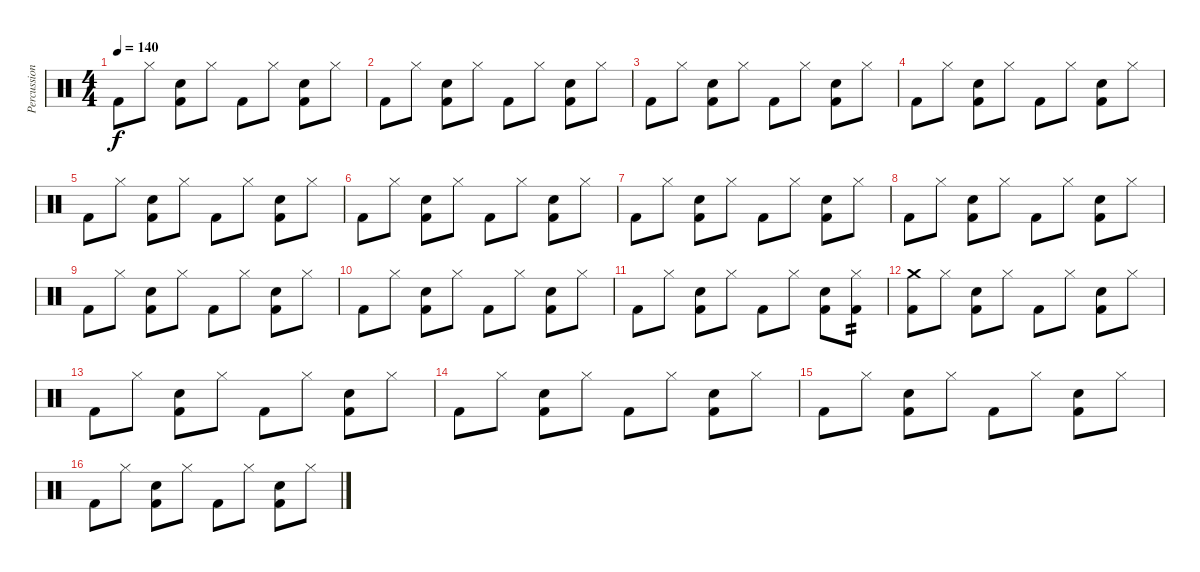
\track ("Percussion" "Percussion") {instrument percussion}
\staff {score}
\articulation defaults
\ts (4 4)
\tempo 140
\clef neutral
\ks c "Kick (hit) 2".8{dy f} "Hi-Hat (closed)".8
("Electric Snare (hit)" "Kick (hit) 2").8 "Hi-Hat (closed)".8 "Kick (hit) 2".8 "Hi-Hat (closed)".8 ("Electric Snare (hit)" "Kick (hit) 2").8 "Hi-Hat (closed)".8 |
"Kick (hit) 2".8 "Hi-Hat (closed)".8 ("Electric Snare (hit)" "Kick (hit) 2").8 "Hi-Hat (closed)".8 "Kick (hit) 2".8 "Hi-Hat (closed)".8 ("Electric Snare (hit)" "Kick (hit) 2").8 "Hi-Hat (closed)".8 |
"Kick (hit) 2".8 "Hi-Hat (closed)".8 ("Electric Snare (hit)" "Kick (hit) 2").8 "Hi-Hat (closed)".8 "Kick (hit) 2".8 "Hi-Hat (closed)".8 ("Electric Snare (hit)" "Kick (hit) 2").8 "Hi-Hat (closed)".8 |
"Kick (hit) 2".8 "Hi-Hat (closed)".8 ("Electric Snare (hit)" "Kick (hit) 2").8 "Hi-Hat (closed)".8 "Kick (hit) 2".8 "Hi-Hat (closed)".8 ("Electric Snare (hit)" "Kick (hit) 2").8 "Hi-Hat (closed)".8 |
"Kick (hit) 2".8 "Hi-Hat (closed)".8 ("Electric Snare (hit)" "Kick (hit) 2").8 "Hi-Hat (closed)".8 "Kick (hit) 2".8 "Hi-Hat (closed)".8 ("Electric Snare (hit)" "Kick (hit) 2").8 "Hi-Hat (closed)".8 |
"Kick (hit) 2".8 "Hi-Hat (closed)".8 ("Electric Snare (hit)" "Kick (hit) 2").8 "Hi-Hat (closed)".8 "Kick (hit) 2".8 "Hi-Hat (closed)".8 ("Electric Snare (hit)" "Kick (hit) 2").8 "Hi-Hat (closed)".8 |
"Kick (hit) 2".8 "Hi-Hat (closed)".8 ("Electric Snare (hit)" "Kick (hit) 2").8 "Hi-Hat (closed)".8 "Kick (hit) 2".8 "Hi-Hat (closed)".8 ("Electric Snare (hit)" "Kick (hit) 2").8 "Hi-Hat (closed)".8 |
"Kick (hit) 2".8 "Hi-Hat (closed)".8 ("Electric Snare (hit)" "Kick (hit) 2").8 "Hi-Hat (closed)".8 "Kick (hit) 2".8 "Hi-Hat (closed)".8 ("Electric Snare (hit)" "Kick (hit) 2").8 "Hi-Hat (closed)".8 |
"Kick (hit) 2".8 "Hi-Hat (closed)".8 ("Electric Snare (hit)" "Kick (hit) 2").8 "Hi-Hat (closed)".8 "Kick (hit) 2".8 "Hi-Hat (closed)".8 ("Electric Snare (hit)" "Kick (hit) 2").8 "Hi-Hat (closed)".8 |
"Kick (hit) 2".8 "Hi-Hat (closed)".8 ("Electric Snare (hit)" "Kick (hit) 2").8 "Hi-Hat (closed)".8 "Kick (hit) 2".8 "Hi-Hat (closed)".8 ("Electric Snare (hit)" "Kick (hit) 2").8 "Hi-Hat (closed)".8 |
"Kick (hit) 2".8 "Hi-Hat (closed)".8 ("Electric Snare (hit)" "Kick (hit) 2").8 "Hi-Hat (closed)".8 "Kick (hit) 2".8 "Hi-Hat (closed)".8 ("Electric Snare (hit)" "Kick (hit) 2").8 ("Hi-Hat (closed)" "Kick (hit) 2").8{tp 2} |
("Crash medium (hit)" "Kick (hit) 2").8 "Hi-Hat (closed)".8 ("Electric Snare (hit)" "Kick (hit) 2").8 "Hi-Hat (closed)".8 "Kick (hit) 2".8 "Hi-Hat (closed)".8 ("Electric Snare (hit)" "Kick (hit) 2").8 "Hi-Hat (closed)".8 |
"Kick (hit) 2".8 "Hi-Hat (closed)".8 ("Electric Snare (hit)" "Kick (hit) 2").8 "Hi-Hat (closed)".8 "Kick (hit) 2".8 "Hi-Hat (closed)".8 ("Electric Snare (hit)" "Kick (hit) 2").8 "Hi-Hat (closed)".8 |
"Kick (hit) 2".8 "Hi-Hat (closed)".8 ("Electric Snare (hit)" "Kick (hit) 2").8 "Hi-Hat (closed)".8 "Kick (hit) 2".8 "Hi-Hat (closed)".8 ("Electric Snare (hit)" "Kick (hit) 2").8 "Hi-Hat (closed)".8 |
"Kick (hit) 2".8 "Hi-Hat (closed)".8 ("Electric Snare (hit)" "Kick (hit) 2").8 "Hi-Hat (closed)".8 "Kick (hit) 2".8 "Hi-Hat (closed)".8 ("Electric Snare (hit)" "Kick (hit) 2").8 "Hi-Hat (closed)".8 |
"Kick (hit) 2".8 "Hi-Hat (closed)".8 ("Electric Snare (hit)" "Kick (hit) 2").8 "Hi-Hat (closed)".8 "Kick (hit) 2".8 "Hi-Hat (closed)".8 ("Electric Snare (hit)" "Kick (hit) 2").8 "Hi-Hat (closed)".8
